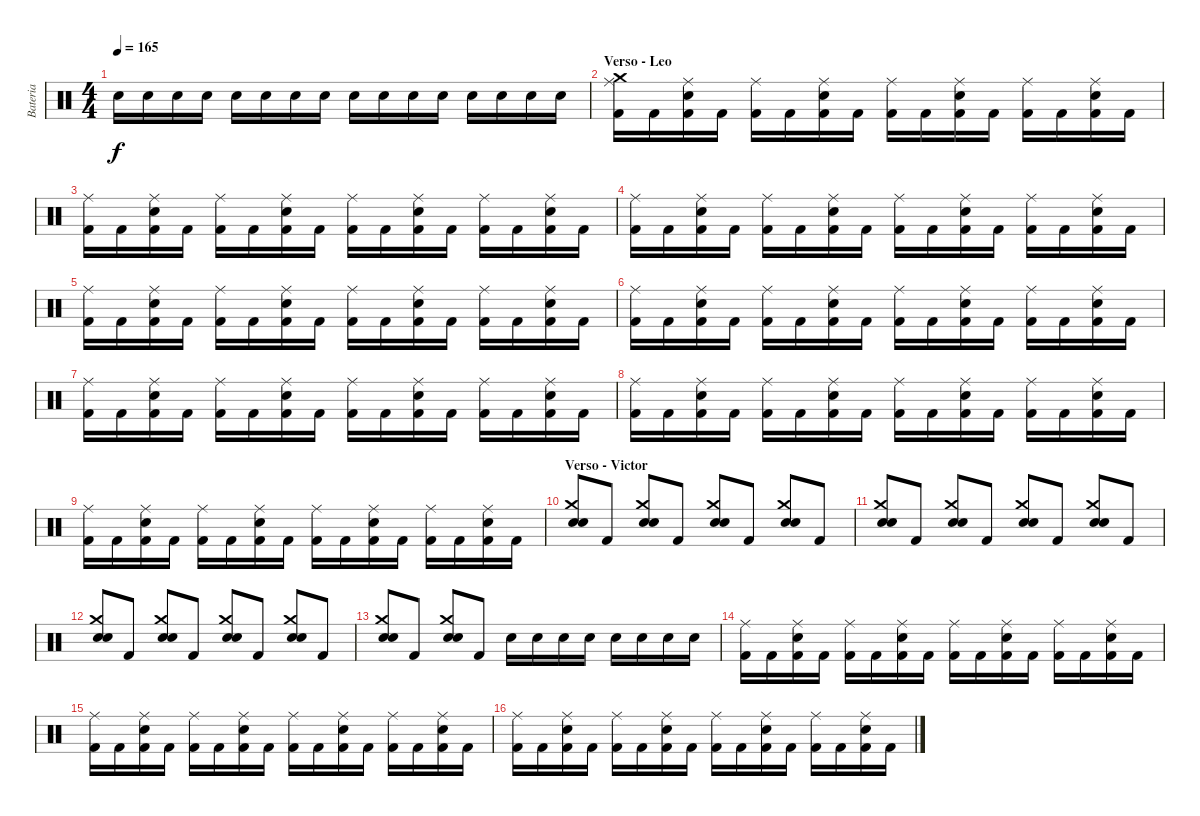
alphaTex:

\track ("Bateria" "Bateria") {instrument percussion}
\staff {score}
\articulation defaults
\ts (4 4)
\tempo 165
\clef neutral
\ks c "Snare (hit) 2".16{dy f} "Snare (hit) 2".16 "Snare (hit) 2".16 "Snare (hit) 2".16 "Snare (hit) 2".16 "Snare (hit) 2".16 "Snare (hit) 2".16 "Snare (hit) 2".16 "Snare (hit) 2".16 "Snare (hit) 2".16 "Snare (hit) 2".16 "Snare (hit) 2".16 "Snare (hit) 2".16 "Snare (hit) 2".16 "Snare (hit) 2".16 "Snare (hit) 2".16
|
\section ("" "Verso - Leo")
("Crash medium (hit)" "Kick (hit) 2" "Ride (middle)").16 "Kick (hit) 2".16 ("Snare (hit) 2" "Ride (middle)" "Kick (hit) 2").16 "Kick (hit) 2".16 ("Kick (hit) 2" "Ride (middle)").16 "Kick (hit) 2".16 ("Snare (hit) 2" "Ride (middle)" "Kick (hit) 2").16 "Kick (hit) 2".16 ("Kick (hit) 2" "Ride (middle)").16 "Kick (hit) 2".16 ("Snare (hit) 2" "Ride (middle)" "Kick (hit) 2").16 "Kick (hit) 2".16 ("Kick (hit) 2" "Ride (middle)").16 "Kick (hit) 2".16 ("Snare (hit) 2" "Ride (middle)" "Kick (hit) 2").16 "Kick (hit) 2".16 |
("Kick (hit) 2" "Ride (middle)").16 "Kick (hit) 2".16 ("Snare (hit) 2" "Ride (middle)" "Kick (hit) 2").16 "Kick (hit) 2".16 ("Kick (hit) 2" "Ride (middle)").16 "Kick (hit) 2".16 ("Snare (hit) 2" "Ride (middle)" "Kick (hit) 2").16 "Kick (hit) 2".16 ("Kick (hit) 2" "Ride (middle)").16 "Kick (hit) 2".16 ("Snare (hit) 2" "Ride (middle)" "Kick (hit) 2").16 "Kick (hit) 2".16 ("Kick (hit) 2" "Ride (middle)").16 "Kick (hit) 2".16 ("Snare (hit) 2" "Ride (middle)" "Kick (hit) 2").16 "Kick (hit) 2".16 |
("Kick (hit) 2" "Ride (middle)").16 "Kick (hit) 2".16 ("Snare (hit) 2" "Ride (middle)" "Kick (hit) 2").16 "Kick (hit) 2".16 ("Kick (hit) 2" "Ride (middle)").16 "Kick (hit) 2".16 ("Snare (hit) 2" "Ride (middle)" "Kick (hit) 2").16 "Kick (hit) 2".16 ("Kick (hit) 2" "Ride (middle)").16 "Kick (hit) 2".16 ("Snare (hit) 2" "Ride (middle)" "Kick (hit) 2").16 "Kick (hit) 2".16 ("Kick (hit) 2" "Ride (middle)").16 "Kick (hit) 2".16 ("Snare (hit) 2" "Ride (middle)" "Kick (hit) 2").16 "Kick (hit) 2".16 |
("Kick (hit) 2" "Ride (middle)").16 "Kick (hit) 2".16 ("Snare (hit) 2" "Ride (middle)" "Kick (hit) 2").16 "Kick (hit) 2".16 ("Kick (hit) 2" "Ride (middle)").16 "Kick (hit) 2".16 ("Snare (hit) 2" "Ride (middle)" "Kick (hit) 2").16 "Kick (hit) 2".16 ("Kick (hit) 2" "Ride (middle)").16 "Kick (hit) 2".16 ("Snare (hit) 2" "Ride (middle)" "Kick (hit) 2").16 "Kick (hit) 2".16 ("Kick (hit) 2" "Ride (middle)").16 "Kick (hit) 2".16 ("Snare (hit) 2" "Ride (middle)" "Kick (hit) 2").16 "Kick (hit) 2".16 |
("Kick (hit) 2" "Ride (middle)").16 "Kick (hit) 2".16 ("Snare (hit) 2" "Ride (middle)" "Kick (hit) 2").16 "Kick (hit) 2".16 ("Kick (hit) 2" "Ride (middle)").16 "Kick (hit) 2".16 ("Snare (hit) 2" "Ride (middle)" "Kick (hit) 2").16 "Kick (hit) 2".16 ("Kick (hit) 2" "Ride (middle)").16 "Kick (hit) 2".16 ("Snare (hit) 2" "Ride (middle)" "Kick (hit) 2").16 "Kick (hit) 2".16 ("Kick (hit) 2" "Ride (middle)").16 "Kick (hit) 2".16 ("Snare (hit) 2" "Ride (middle)" "Kick (hit) 2").16 "Kick (hit) 2".16 |
("Kick (hit) 2" "Ride (middle)").16 "Kick (hit) 2".16 ("Snare (hit) 2" "Ride (middle)" "Kick (hit) 2").16 "Kick (hit) 2".16 ("Kick (hit) 2" "Ride (middle)").16 "Kick (hit) 2".16 ("Snare (hit) 2" "Ride (middle)" "Kick (hit) 2").16 "Kick (hit) 2".16 ("Kick (hit) 2" "Ride (middle)").16 "Kick (hit) 2".16 ("Snare (hit) 2" "Ride (middle)" "Kick (hit) 2").16 "Kick (hit) 2".16 ("Kick (hit) 2" "Ride (middle)").16 "Kick (hit) 2".16 ("Snare (hit) 2" "Ride (middle)" "Kick (hit) 2").16 "Kick (hit) 2".16 |
("Kick (hit) 2" "Ride (middle)").16 "Kick (hit) 2".16 ("Snare (hit) 2" "Ride (middle)" "Kick (hit) 2").16 "Kick (hit) 2".16 ("Kick (hit) 2" "Ride (middle)").16 "Kick (hit) 2".16 ("Snare (hit) 2" "Ride (middle)" "Kick (hit) 2").16 "Kick (hit) 2".16 ("Kick (hit) 2" "Ride (middle)").16 "Kick (hit) 2".16 ("Snare (hit) 2" "Ride (middle)" "Kick (hit) 2").16 "Kick (hit) 2".16 ("Kick (hit) 2" "Ride (middle)").16 "Kick (hit) 2".16 ("Snare (hit) 2" "Ride (middle)" "Kick (hit) 2").16 "Kick (hit) 2".16 |
("Kick (hit) 2" "Ride (middle)").16 "Kick (hit) 2".16 ("Snare (hit) 2" "Ride (middle)" "Kick (hit) 2").16 "Kick (hit) 2".16 ("Kick (hit) 2" "Ride (middle)").16 "Kick (hit) 2".16 ("Snare (hit) 2" "Ride (middle)" "Kick (hit) 2").16 "Kick (hit) 2".16 ("Kick (hit) 2" "Ride (middle)").16 "Kick (hit) 2".16 ("Snare (hit) 2" "Ride (middle)" "Kick (hit) 2").16 "Kick (hit) 2".16 ("Kick (hit) 2" "Ride (middle)").16 "Kick (hit) 2".16 ("Snare (hit) 2" "Ride (middle)" "Kick (hit) 2").16 "Kick (hit) 2".16 |
\section ("" "Verso - Victor")
("Electric Snare (hit)" "Snare (hit) 2" "Crash medium (hit)").8 "Kick (hit) 2".8 ("Electric Snare (hit)" "Snare (hit) 2" "Crash medium (hit)").8 "Kick (hit) 2".8 ("Electric Snare (hit)" "Snare (hit) 2" "Crash medium (hit)").8 "Kick (hit) 2".8 ("Electric Snare (hit)" "Snare (hit) 2" "Crash medium (hit)").8 "Kick (hit) 2".8 |
("Electric Snare (hit)" "Snare (hit) 2" "Crash medium (hit)").8 "Kick (hit) 2".8 ("Electric Snare (hit)" "Snare (hit) 2" "Crash medium (hit)").8 "Kick (hit) 2".8 ("Electric Snare (hit)" "Snare (hit) 2" "Crash medium (hit)").8 "Kick (hit) 2".8 ("Electric Snare (hit)" "Snare (hit) 2" "Crash medium (hit)").8 "Kick (hit) 2".8 |
("Electric Snare (hit)" "Snare (hit) 2" "Crash medium (hit)").8 "Kick (hit) 2".8 ("Electric Snare (hit)" "Snare (hit) 2" "Crash medium (hit)").8 "Kick (hit) 2".8 ("Electric Snare (hit)" "Snare (hit) 2" "Crash medium (hit)").8 "Kick (hit) 2".8 ("Electric Snare (hit)" "Snare (hit) 2" "Crash medium (hit)").8 "Kick (hit) 2".8 |
("Electric Snare (hit)" "Snare (hit) 2" "Crash medium (hit)").8 "Kick (hit) 2".8 ("Electric Snare (hit)" "Snare (hit) 2" "Crash medium (hit)").8 "Kick (hit) 2".8 "Snare (hit) 2".16 "Snare (hit) 2".16 "Snare (hit) 2".16 "Snare (hit) 2".16 "Snare (hit) 2".16 "Snare (hit) 2".16 "Snare (hit) 2".16 "Snare (hit) 2".16 |
("Kick (hit) 2" "Ride (middle)").16 "Kick (hit) 2".16 ("Snare (hit) 2" "Ride (middle)" "Kick (hit) 2").16 "Kick (hit) 2".16 ("Kick (hit) 2" "Ride (middle)").16 "Kick (hit) 2".16 ("Snare (hit) 2" "Ride (middle)" "Kick (hit) 2").16 "Kick (hit) 2".16 ("Kick (hit) 2" "Ride (middle)").16 "Kick (hit) 2".16 ("Snare (hit) 2" "Ride (middle)" "Kick (hit) 2").16 "Kick (hit) 2".16 ("Kick (hit) 2" "Ride (middle)").16 "Kick (hit) 2".16 ("Snare (hit) 2" "Ride (middle)" "Kick (hit) 2").16 "Kick (hit) 2".16 |
("Kick (hit) 2" "Ride (middle)").16 "Kick (hit) 2".16 ("Snare (hit) 2" "Ride (middle)" "Kick (hit) 2").16 "Kick (hit) 2".16 ("Kick (hit) 2" "Ride (middle)").16 "Kick (hit) 2".16 ("Snare (hit) 2" "Ride (middle)" "Kick (hit) 2").16 "Kick (hit) 2".16 ("Kick (hit) 2" "Ride (middle)").16 "Kick (hit) 2".16 ("Snare (hit) 2" "Ride (middle)" "Kick (hit) 2").16 "Kick (hit) 2".16 ("Kick (hit) 2" "Ride (middle)").16 "Kick (hit) 2".16 ("Snare (hit) 2" "Ride (middle)" "Kick (hit) 2").16 "Kick (hit) 2".16 |
("Kick (hit) 2" "Ride (middle)").16 "Kick (hit) 2".16 ("Snare (hit) 2" "Ride (middle)" "Kick (hit) 2").16 "Kick (hit) 2".16 ("Kick (hit) 2" "Ride (middle)").16 "Kick (hit) 2".16 ("Snare (hit) 2" "Ride (middle)" "Kick (hit) 2").16 "Kick (hit) 2".16 ("Kick (hit) 2" "Ride (middle)").16 "Kick (hit) 2".16 ("Snare (hit) 2" "Ride (middle)" "Kick (hit) 2").16 "Kick (hit) 2".16 ("Kick (hit) 2" "Ride (middle)").16 "Kick (hit) 2".16 ("Snare (hit) 2" "Ride (middle)" "Kick (hit) 2").16 "Kick (hit) 2".16
